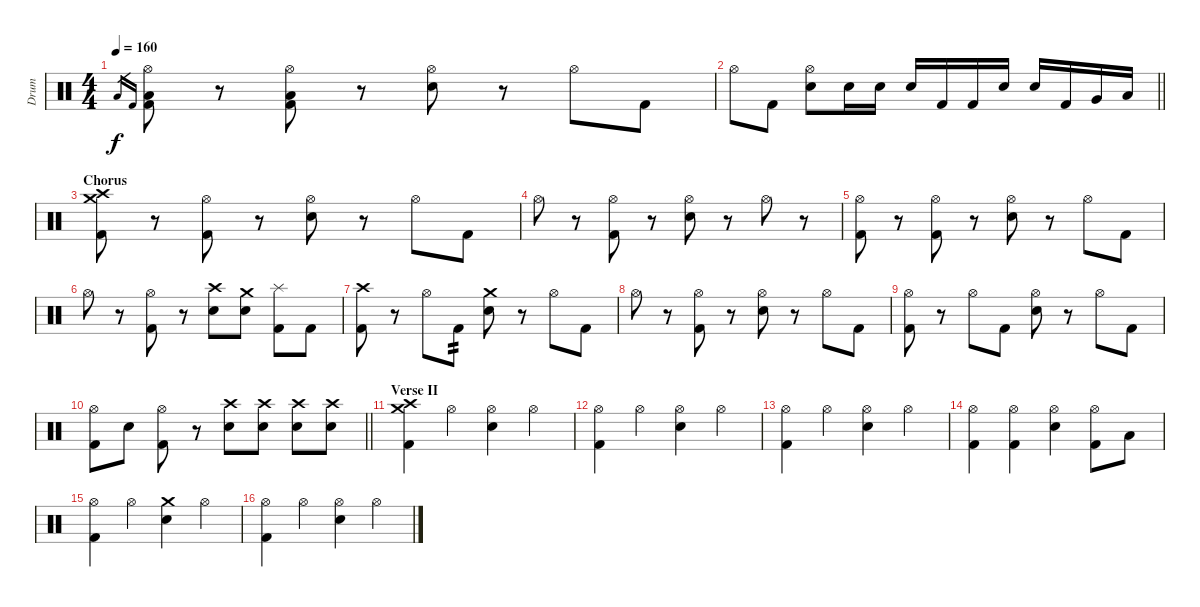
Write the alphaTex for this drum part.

\track ("Drum" "Drum") {instrument percussion}
\staff {score}
\articulation defaults
\ts (4 4)
\tempo 160
\clef neutral
\ks c "Low Floor Tom (hit)".16{gr dy f} "Kick (hit) 2".16{gr}
("Hi-Hat (open)" "Low Floor Tom (hit)" "Kick (hit) 2").8 r.8 ("Hi-Hat (open)" "Low Floor Tom (hit)" "Kick (hit) 2").8 r.8 ("Hi-Hat (open)" "Electric Snare (hit)").8 r.8 "Hi-Hat (open)".8 "Kick (hit) 2".8 |
\barLineRight lightlight "Hi-Hat (open)".8 "Kick (hit) 2".8
("Hi-Hat (open)" "Electric Snare (hit)").8 "Electric Snare (hit)".16 "Electric Snare (hit)".16 "Electric Snare (hit)".16 "Kick (hit) 2".16 "Kick (hit) 2".16 "Electric Snare (hit)".16 "Electric Snare (hit)".16 "Kick (hit) 2".16 "Very Low Tom (hit)".16 "Low Floor Tom (hit)".16 |
\section ("" "Chorus")
("Crash high (hit)" "Crash medium (hit)" "Kick (hit) 2").8 r.8 ("Hi-Hat (open)" "Kick (hit) 2").8 r.8 ("Hi-Hat (open)" "Electric Snare (hit)").8 r.8 "Hi-Hat (open)".8 "Kick (hit) 2".8 |
"Hi-Hat (open)".8 r.8 ("Hi-Hat (open)" "Kick (hit) 2").8 r.8 ("Hi-Hat (open)" "Electric Snare (hit)").8 r.8 "Hi-Hat (open)".8 r.8 |
("Hi-Hat (open)" "Kick (hit) 2").8 r.8 ("Hi-Hat (open)" "Kick (hit) 2").8 r.8 ("Hi-Hat (open)" "Electric Snare (hit)").8 r.8 "Hi-Hat (open)".8 "Kick (hit) 2".8 |
"Hi-Hat (open)".8 r.8 ("Hi-Hat (open)" "Kick (hit) 2").8 r.8 ("Crash high (hit)" "Electric Snare (hit)").8 ("Crash medium (hit)" "Electric Snare (hit)").8 ("Splash (hit)" "Kick (hit) 2").8 "Kick (hit) 2".8 |
("Crash high (hit)" "Kick (hit) 2").8 r.8 "Hi-Hat (open)".8 "Kick (hit) 2".8{tp 2} ("Crash medium (hit)" "Electric Snare (hit)").8 r.8 "Hi-Hat (open)".8 "Kick (hit) 2".8 |
"Hi-Hat (open)".8 r.8 ("Hi-Hat (open)" "Kick (hit) 2").8 r.8 ("Hi-Hat (open)" "Electric Snare (hit)").8 r.8 "Hi-Hat (open)".8 "Kick (hit) 2".8 |
("Hi-Hat (open)" "Kick (hit) 2").8 r.8 "Hi-Hat (open)".8 "Kick (hit) 2".8 ("Hi-Hat (open)" "Electric Snare (hit)").8 r.8 "Hi-Hat (open)".8 "Kick (hit) 2".8 |
\barLineRight lightlight
("Hi-Hat (open)" "Kick (hit) 2").8 "Electric Snare (hit)".8 ("Hi-Hat (open)" "Kick (hit) 2").8 r.8 ("Crash high (hit)" "Electric Snare (hit)").8 ("Crash high (hit)" "Electric Snare (hit)").8 ("Crash high (hit)" "Electric Snare (hit)").8 ("Crash high (hit)" "Electric Snare (hit)").8 |
\section ("" "Verse II")
("Crash medium (hit)" "Crash high (hit)" "Kick (hit) 2").4{volume 8} "Hi-Hat (open)".4 ("Hi-Hat (open)" "Electric Snare (hit)").4 "Hi-Hat (open)".4 |
("Hi-Hat (open)" "Kick (hit) 2").4 "Hi-Hat (open)".4 ("Hi-Hat (open)" "Electric Snare (hit)").4 "Hi-Hat (open)".4 |
("Hi-Hat (open)" "Kick (hit) 2").4 "Hi-Hat (open)".4 ("Hi-Hat (open)" "Electric Snare (hit)").4 "Hi-Hat (open)".4 |
("Hi-Hat (open)" "Kick (hit) 2").4 ("Hi-Hat (open)" "Kick (hit) 2").4 ("Hi-Hat (open)" "Electric Snare (hit)").4 ("Hi-Hat (open)" "Kick (hit) 2").8 "Low Floor Tom (hit)".8 |
("Hi-Hat (open)" "Kick (hit) 2").4 "Hi-Hat (open)".4 ("Crash medium (hit)" "Electric Snare (hit)").4 "Hi-Hat (open)".4 |
("Hi-Hat (open)" "Kick (hit) 2").4 "Hi-Hat (open)".4 ("Hi-Hat (open)" "Electric Snare (hit)").4 "Hi-Hat (open)".4
